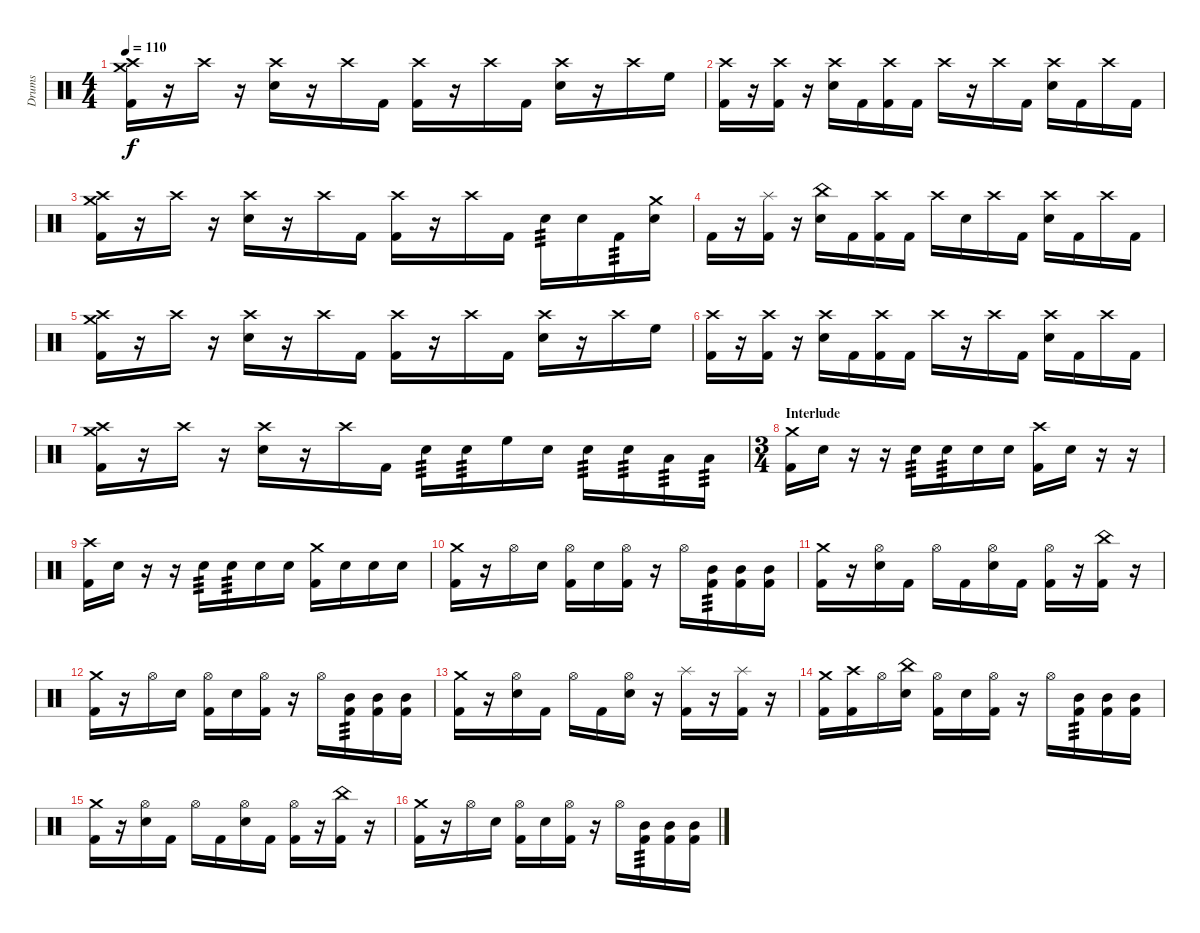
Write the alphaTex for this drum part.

\track ("Drums" "Drums") {instrument percussion}
\staff {score}
\articulation defaults
\ts (4 4)
\tempo 110
\clef neutral
\ks c
("Crash high (hit)" "Crash medium (hit)" "Kick (hit) 2").16{dy f} r.16 "Crash high (hit)".16 r.16 ("Crash high (hit)" "Snare (hit) 2").16 r.16 "Crash high (hit)".16 "Kick (hit) 2".16 ("Crash high (hit)" "Kick (hit) 2").16 r.16 "Crash high (hit)".16 "Kick (hit) 2".16 ("Crash high (hit)" "Snare (hit) 2").16 r.16 "Crash high (hit)".16 "High Floor Tom (hit)".16 |
("Crash high (hit)" "Kick (hit) 2").16 r.16 ("Crash high (hit)" "Kick (hit) 2").16 r.16 ("Crash high (hit)" "Snare (hit) 2").16 "Kick (hit) 2".16 ("Crash high (hit)" "Kick (hit) 2").16 "Kick (hit) 2".16 "Crash high (hit)".16 r.16 "Crash high (hit)".16 "Kick (hit) 2".16 ("Crash high (hit)" "Snare (hit) 2").16 "Kick (hit) 2".16 "Crash high (hit)".16 "Kick (hit) 2".16 |
("Crash high (hit)" "Crash medium (hit)" "Kick (hit) 2").16 r.16 "Crash high (hit)".16 r.16 ("Crash high (hit)" "Snare (hit) 2").16 r.16 "Crash high (hit)".16 "Kick (hit) 2".16 ("Crash high (hit)" "Kick (hit) 2").16 r.16 "Crash high (hit)".16 "Kick (hit) 2".16 "Snare (hit) 2".16{tp 3} "Snare (hit) 2".16 "Kick (hit) 2".16{tp 3} ("Crash medium (hit)" "Snare (hit) 2").16 |
"Kick (hit) 2".16 r.16 ("Splash (hit)" "Kick (hit) 2").16 r.16 ("China (hit)" "Snare (hit) 2").16 "Kick (hit) 2".16 ("Crash high (hit)" "Kick (hit) 2").16 "Kick (hit) 2".16 "Crash high (hit)".16 "Snare (hit) 2".16 "Crash high (hit)".16 "Kick (hit) 2".16 ("Crash high (hit)" "Snare (hit) 2").16 "Kick (hit) 2".16 "Crash high (hit)".16 "Kick (hit) 2".16 |
("Crash high (hit)" "Crash medium (hit)" "Kick (hit) 2").16 r.16 "Crash high (hit)".16 r.16 ("Crash high (hit)" "Snare (hit) 2").16 r.16 "Crash high (hit)".16 "Kick (hit) 2".16 ("Crash high (hit)" "Kick (hit) 2").16 r.16 "Crash high (hit)".16 "Kick (hit) 2".16 ("Crash high (hit)" "Snare (hit) 2").16 r.16 "Crash high (hit)".16 "High Floor Tom (hit)".16 |
("Crash high (hit)" "Kick (hit) 2").16 r.16 ("Crash high (hit)" "Kick (hit) 2").16 r.16 ("Crash high (hit)" "Snare (hit) 2").16 "Kick (hit) 2".16 ("Crash high (hit)" "Kick (hit) 2").16 "Kick (hit) 2".16 "Crash high (hit)".16 r.16 "Crash high (hit)".16 "Kick (hit) 2".16 ("Crash high (hit)" "Snare (hit) 2").16 "Kick (hit) 2".16 "Crash high (hit)".16 "Kick (hit) 2".16 |
("Crash high (hit)" "Crash medium (hit)" "Kick (hit) 2").16 r.16 "Crash high (hit)".16 r.16 ("Crash high (hit)" "Snare (hit) 2").16 r.16 "Crash high (hit)".16 "Kick (hit) 2".16 "Snare (hit) 2".16{tp 3} "Snare (hit) 2".16{tp 3} "High Floor Tom (hit)".16 "Snare (hit) 2".16 "Snare (hit) 2".16{tp 3} "Snare (hit) 2".16{tp 3} "Low Tom (hit)".16{tp 3} "Low Floor Tom (hit)".16{tp 3} |
\ts (3 4)
\section ("" "Interlude")
("Crash medium (hit)" "Kick (hit) 2").16 "Snare (hit) 2".16 r.16 r.16 "Snare (hit) 2".16{tp 3} "Snare (hit) 2".16{tp 3} "Snare (hit) 2".16 "Snare (hit) 2".16 ("Crash high (hit)" "Kick (hit) 2").16 "Snare (hit) 2".16 r.16 r.16 |
("Crash high (hit)" "Kick (hit) 2").16 "Snare (hit) 2".16 r.16 r.16 "Snare (hit) 2".16{tp 3} "Snare (hit) 2".16{tp 3} "Snare (hit) 2".16 "Snare (hit) 2".16 ("Crash medium (hit)" "Kick (hit) 2").16 "Snare (hit) 2".16 "Snare (hit) 2".16 "Snare (hit) 2".16 |
("Crash medium (hit)" "Kick (hit) 2").16 r.16 "Hi-Hat (open)".16 "Snare (hit) 2".16 ("Hi-Hat (open)" "Kick (hit) 2").16 "Snare (hit) 2".16 ("Hi-Hat (open)" "Kick (hit) 2").16 r.16 "Hi-Hat (open)".16 ("Mid Tom (hit)" "Kick (hit) 2").16{tp 3} ("Mid Tom (hit)" "Kick (hit) 2").16 ("Mid Tom (hit)" "Kick (hit) 2").16 |
("Crash medium (hit)" "Kick (hit) 2").16 r.16 ("Hi-Hat (open)" "Snare (hit) 2").16 "Kick (hit) 2".16 "Hi-Hat (open)".16 "Kick (hit) 2".16 ("Hi-Hat (open)" "Snare (hit) 2").16 "Kick (hit) 2".16 ("Hi-Hat (open)" "Kick (hit) 2").16 r.16 ("China (hit)" "Kick (hit) 2").16 r.16 |
("Crash medium (hit)" "Kick (hit) 2").16 r.16 "Hi-Hat (open)".16 "Snare (hit) 2".16 ("Hi-Hat (open)" "Kick (hit) 2").16 "Snare (hit) 2".16 ("Hi-Hat (open)" "Kick (hit) 2").16 r.16 "Hi-Hat (open)".16 ("Mid Tom (hit)" "Kick (hit) 2").16{tp 3} ("Mid Tom (hit)" "Kick (hit) 2").16 ("Mid Tom (hit)" "Kick (hit) 2").16 |
("Crash medium (hit)" "Kick (hit) 2").16 r.16 ("Hi-Hat (open)" "Snare (hit) 2").16 "Kick (hit) 2".16 "Hi-Hat (open)".16 "Kick (hit) 2".16 ("Hi-Hat (open)" "Snare (hit) 2").16 r.16 ("Splash (hit)" "Kick (hit) 2").16 r.16 ("Splash (hit)" "Kick (hit) 2").16 r.16 |
("Crash medium (hit)" "Kick (hit) 2").16 ("Crash high (hit)" "Kick (hit) 2").16 "Hi-Hat (open)".16 ("China (hit)" "Snare (hit) 2").16 ("Hi-Hat (open)" "Kick (hit) 2").16 "Snare (hit) 2".16 ("Hi-Hat (open)" "Kick (hit) 2").16 r.16 "Hi-Hat (open)".16 ("Mid Tom (hit)" "Kick (hit) 2").16{tp 3} ("Mid Tom (hit)" "Kick (hit) 2").16 ("Mid Tom (hit)" "Kick (hit) 2").16 |
("Crash medium (hit)" "Kick (hit) 2").16 r.16 ("Hi-Hat (open)" "Snare (hit) 2").16 "Kick (hit) 2".16 "Hi-Hat (open)".16 "Kick (hit) 2".16 ("Hi-Hat (open)" "Snare (hit) 2").16 "Kick (hit) 2".16 ("Hi-Hat (open)" "Kick (hit) 2").16 r.16 ("China (hit)" "Kick (hit) 2").16 r.16 |
("Crash medium (hit)" "Kick (hit) 2").16 r.16 "Hi-Hat (open)".16 "Snare (hit) 2".16 ("Hi-Hat (open)" "Kick (hit) 2").16 "Snare (hit) 2".16 ("Hi-Hat (open)" "Kick (hit) 2").16 r.16 "Hi-Hat (open)".16 ("Mid Tom (hit)" "Kick (hit) 2").16{tp 3} ("Mid Tom (hit)" "Kick (hit) 2").16 ("Mid Tom (hit)" "Kick (hit) 2").16
